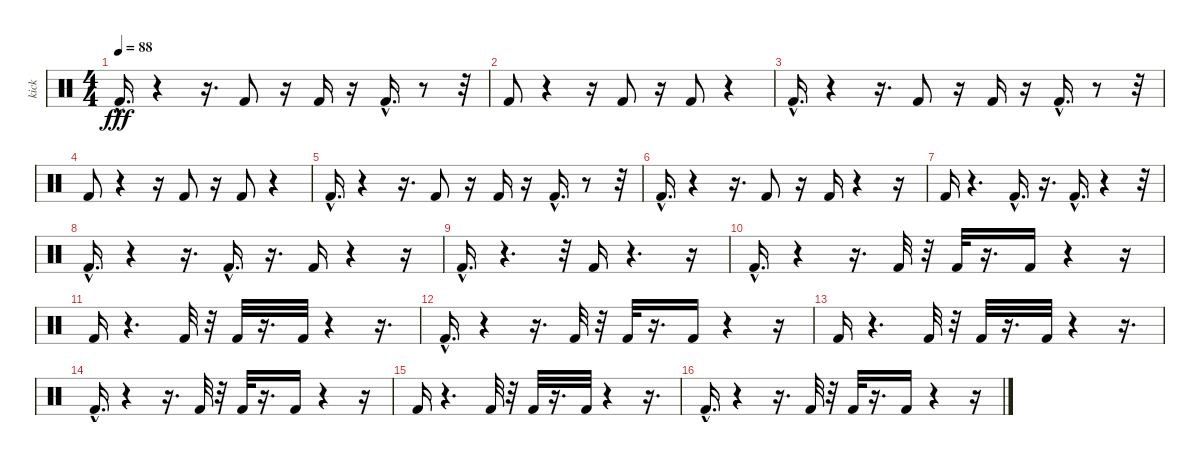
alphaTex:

\track ("kick" "kick") {instrument percussion}
\staff {score}
\articulation defaults
\ts (4 4)
\tempo 88
\clef neutral
\ks c "Kick (hit) 2"{hac}.16{d dy fff}
r.4 r.16{d} "Kick (hit) 2".8 r.16 "Kick (hit) 2".16 r.16 "Kick (hit) 2"{hac}.16{d} r.8 r.32 |
"Kick (hit) 2".8 r.4 r.16 "Kick (hit) 2".8 r.16 "Kick (hit) 2".8 r.4 |
"Kick (hit) 2"{hac}.16{d} r.4 r.16{d} "Kick (hit) 2".8 r.16 "Kick (hit) 2".16 r.16 "Kick (hit) 2"{hac}.16{d} r.8 r.32 |
"Kick (hit) 2".8 r.4 r.16 "Kick (hit) 2".8 r.16 "Kick (hit) 2".8 r.4 |
"Kick (hit) 2"{hac}.16{d} r.4 r.16{d} "Kick (hit) 2".8 r.16 "Kick (hit) 2".16 r.16 "Kick (hit) 2"{hac}.16{d} r.8 r.32 |
"Kick (hit) 2"{hac}.16{d} r.4 r.16{d} "Kick (hit) 2".8 r.16 "Kick (hit) 2".16 r.4 r.16 |
"Kick (hit) 2".16 r.4{d} "Kick (hit) 2"{hac}.16{d} r.16{d} "Kick (hit) 2"{hac}.16{d} r.4 r.32 |
"Kick (hit) 2"{hac}.16{d} r.4 r.16{d} "Kick (hit) 2"{hac}.16{d} r.16{d} "Kick (hit) 2".16 r.4 r.16 |
"Kick (hit) 2"{hac}.16{d} r.4{d} r.32 "Kick (hit) 2".16 r.4{d} r.16 |
"Kick (hit) 2"{hac}.16{d} r.4 r.16{d} "Kick (hit) 2".32 r.32 "Kick (hit) 2".32 r.16{d} "Kick (hit) 2".16 r.4 r.16 |
"Kick (hit) 2".16 r.4{d} "Kick (hit) 2".32 r.32 "Kick (hit) 2".32 r.16{d} "Kick (hit) 2".32 r.4 r.16{d} |
"Kick (hit) 2"{hac}.16{d} r.4 r.16{d} "Kick (hit) 2".32 r.32 "Kick (hit) 2".32 r.16{d} "Kick (hit) 2".16 r.4 r.16 |
"Kick (hit) 2".16 r.4{d} "Kick (hit) 2".32 r.32 "Kick (hit) 2".32 r.16{d} "Kick (hit) 2".32 r.4 r.16{d} |
"Kick (hit) 2"{hac}.16{d} r.4 r.16{d} "Kick (hit) 2".32 r.32 "Kick (hit) 2".32 r.16{d} "Kick (hit) 2".16 r.4 r.16 |
"Kick (hit) 2".16 r.4{d} "Kick (hit) 2".32 r.32 "Kick (hit) 2".32 r.16{d} "Kick (hit) 2".32 r.4 r.16{d} |
"Kick (hit) 2"{hac}.16{d} r.4 r.16{d} "Kick (hit) 2".32 r.32 "Kick (hit) 2".32 r.16{d} "Kick (hit) 2".16 r.4 r.16
